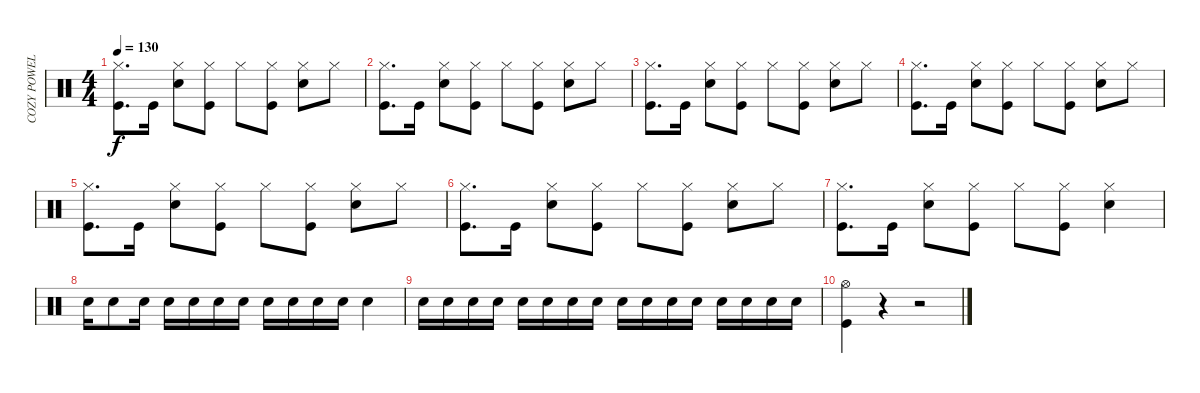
\track ("COZY POWELL" "COZY POWEL") {instrument percussion}
\staff {score}
\articulation defaults
\ts (4 4)
\tempo 130
\clef neutral
\ks c
("Hi-Hat (closed)" "Kick (hit)").8{d dy f} "Kick (hit)".16 ("Hi-Hat (closed)" "Snare (hit) 2").8 ("Hi-Hat (closed)" "Kick (hit)").8 "Hi-Hat (closed)".8 ("Hi-Hat (closed)" "Kick (hit)").8 ("Hi-Hat (closed)" "Snare (hit) 2").8 "Hi-Hat (closed)".8 |
("Hi-Hat (closed)" "Kick (hit)").8{d} "Kick (hit)".16 ("Hi-Hat (closed)" "Snare (hit) 2").8 ("Hi-Hat (closed)" "Kick (hit)").8 "Hi-Hat (closed)".8 ("Hi-Hat (closed)" "Kick (hit)").8 ("Hi-Hat (closed)" "Snare (hit) 2").8 "Hi-Hat (closed)".8 |
("Hi-Hat (closed)" "Kick (hit)").8{d} "Kick (hit)".16 ("Hi-Hat (closed)" "Snare (hit) 2").8 ("Hi-Hat (closed)" "Kick (hit)").8 "Hi-Hat (closed)".8 ("Hi-Hat (closed)" "Kick (hit)").8 ("Hi-Hat (closed)" "Snare (hit) 2").8 "Hi-Hat (closed)".8 |
("Hi-Hat (closed)" "Kick (hit)").8{d} "Kick (hit)".16 ("Hi-Hat (closed)" "Snare (hit) 2").8 ("Hi-Hat (closed)" "Kick (hit)").8 "Hi-Hat (closed)".8 ("Hi-Hat (closed)" "Kick (hit)").8 ("Hi-Hat (closed)" "Snare (hit) 2").8 "Hi-Hat (closed)".8 |
("Hi-Hat (closed)" "Kick (hit)").8{d} "Kick (hit)".16 ("Hi-Hat (closed)" "Snare (hit) 2").8 ("Hi-Hat (closed)" "Kick (hit)").8 "Hi-Hat (closed)".8 ("Hi-Hat (closed)" "Kick (hit)").8 ("Hi-Hat (closed)" "Snare (hit) 2").8 "Hi-Hat (closed)".8 |
("Hi-Hat (closed)" "Kick (hit)").8{d} "Kick (hit)".16 ("Hi-Hat (closed)" "Snare (hit) 2").8 ("Hi-Hat (closed)" "Kick (hit)").8 "Hi-Hat (closed)".8 ("Hi-Hat (closed)" "Kick (hit)").8 ("Hi-Hat (closed)" "Snare (hit) 2").8 "Hi-Hat (closed)".8 |
("Hi-Hat (closed)" "Kick (hit)").8{d} "Kick (hit)".16 ("Hi-Hat (closed)" "Snare (hit) 2").8 ("Hi-Hat (closed)" "Kick (hit)").8 "Hi-Hat (closed)".8 ("Hi-Hat (closed)" "Kick (hit)").8 ("Hi-Hat (closed)" "Snare (hit) 2").4 |
"Snare (hit) 2".16 "Snare (hit) 2".8 "Snare (hit) 2".16 "Snare (hit) 2".16 "Snare (hit) 2".16 "Snare (hit) 2".16 "Snare (hit) 2".16 "Snare (hit) 2".16 "Snare (hit) 2".16 "Snare (hit) 2".16 "Snare (hit) 2".16 "Snare (hit) 2".4 |
"Snare (hit) 2".16 "Snare (hit) 2".16 "Snare (hit) 2".16 "Snare (hit) 2".16 "Snare (hit) 2".16 "Snare (hit) 2".16 "Snare (hit) 2".16 "Snare (hit) 2".16 "Snare (hit) 2".16 "Snare (hit) 2".16 "Snare (hit) 2".16 "Snare (hit) 2".16 "Snare (hit) 2".16 "Snare (hit) 2".16 "Snare (hit) 2".16 "Snare (hit) 2".16 |
("Hi-Hat (open)" "Kick (hit)").4 r.4 r.2
